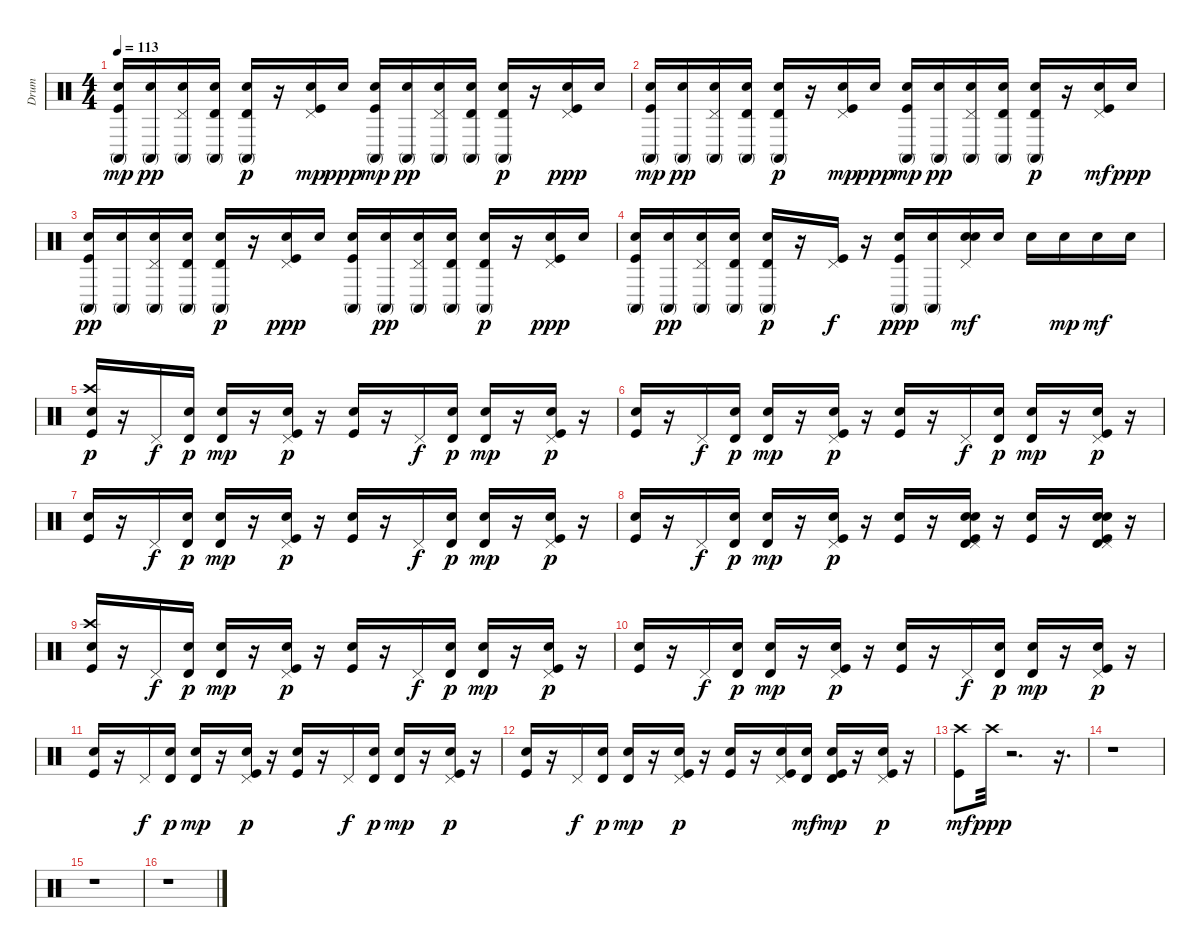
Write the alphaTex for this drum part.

\track ("Drum" "Drum") {instrument percussion}
\staff {score}
\articulation defaults
\ts (4 4)
\tempo 113
\clef neutral
\ks c
("Electric Snare (hit)" "Conga high (mute)" "Kick (hit)").16{dy mp} ("Electric Snare (hit)" "Conga high (mute)").16{dy pp} ("Electric Snare (hit)" "Conga high (mute)" "Pedal Hi-Hat (hit)").16 ("Electric Snare (hit)" "Conga high (mute)" "Timbale high (hit)").16 ("Electric Snare (hit)" "Conga high (mute)" "Timbale high (hit)").16{dy p} r.16 ("Electric Snare (hit)" "Kick (hit)" "Pedal Hi-Hat (hit)").16{dy mp} "Electric Snare (hit)".16{dy ppp} ("Electric Snare (hit)" "Conga high (mute)" "Kick (hit)").16{dy mp} ("Electric Snare (hit)" "Conga high (mute)").16{dy pp} ("Electric Snare (hit)" "Conga high (mute)" "Pedal Hi-Hat (hit)").16 ("Electric Snare (hit)" "Conga high (mute)" "Timbale high (hit)").16 ("Electric Snare (hit)" "Conga high (mute)" "Timbale high (hit)").16{dy p} r.16 ("Electric Snare (hit)" "Kick (hit)" "Pedal Hi-Hat (hit)").16{dy ppp} "Electric Snare (hit)".16 |
("Electric Snare (hit)" "Conga high (mute)" "Kick (hit)").16{dy mp} ("Electric Snare (hit)" "Conga high (mute)").16{dy pp} ("Electric Snare (hit)" "Conga high (mute)" "Pedal Hi-Hat (hit)").16 ("Electric Snare (hit)" "Conga high (mute)" "Timbale high (hit)").16 ("Electric Snare (hit)" "Conga high (mute)" "Timbale high (hit)").16{dy p} r.16 ("Electric Snare (hit)" "Kick (hit)" "Pedal Hi-Hat (hit)").16{dy mp} "Electric Snare (hit)".16{dy ppp} ("Electric Snare (hit)" "Conga high (mute)" "Kick (hit)").16{dy mp} ("Electric Snare (hit)" "Conga high (mute)").16{dy pp} ("Electric Snare (hit)" "Conga high (mute)" "Pedal Hi-Hat (hit)").16 ("Electric Snare (hit)" "Conga high (mute)" "Timbale high (hit)").16 ("Electric Snare (hit)" "Conga high (mute)" "Timbale high (hit)").16{dy p} r.16 ("Electric Snare (hit)" "Kick (hit)" "Pedal Hi-Hat (hit)").16{dy mf} "Electric Snare (hit)".16{dy ppp} |
("Electric Snare (hit)" "Conga high (mute)" "Kick (hit)").16{dy pp} ("Electric Snare (hit)" "Conga high (mute)").16 ("Electric Snare (hit)" "Conga high (mute)" "Pedal Hi-Hat (hit)").16 ("Electric Snare (hit)" "Conga high (mute)" "Timbale high (hit)").16 ("Electric Snare (hit)" "Conga high (mute)" "Timbale high (hit)").16{dy p} r.16 ("Electric Snare (hit)" "Kick (hit)" "Pedal Hi-Hat (hit)").16{dy ppp} "Electric Snare (hit)".16 ("Electric Snare (hit)" "Conga high (mute)" "Kick (hit)").16 ("Electric Snare (hit)" "Conga high (mute)").16{dy pp} ("Electric Snare (hit)" "Conga high (mute)" "Pedal Hi-Hat (hit)").16 ("Electric Snare (hit)" "Conga high (mute)" "Timbale high (hit)").16 ("Electric Snare (hit)" "Conga high (mute)" "Timbale high (hit)").16{dy p} r.16 ("Electric Snare (hit)" "Kick (hit)" "Pedal Hi-Hat (hit)").16{dy ppp} "Electric Snare (hit)".16 |
("Electric Snare (hit)" "Conga high (mute)" "Kick (hit)").16 ("Electric Snare (hit)" "Conga high (mute)").16{dy pp} ("Electric Snare (hit)" "Conga high (mute)" "Pedal Hi-Hat (hit)").16 ("Electric Snare (hit)" "Conga high (mute)" "Timbale high (hit)").16 ("Electric Snare (hit)" "Conga high (mute)" "Timbale high (hit)").16{dy p} r.16 ("Kick (hit)" "Pedal Hi-Hat (hit)").16{dy f} r.16 ("Electric Snare (hit)" "Conga high (mute)" "Kick (hit)").16{dy ppp} ("Electric Snare (hit)" "Conga high (mute)").16 ("Electric Snare (hit)" "Electric Snare (hit)" "Pedal Hi-Hat (hit)").16{dy mf} "Electric Snare (hit)".16 "Electric Snare (hit)".16 "Electric Snare (hit)".16{dy mp} "Electric Snare (hit)".16{dy mf} "Electric Snare (hit)".16 |
("Crash high (hit)" "Kick (hit)" "Snare (hit) 2").16{dy p} r.16 "Pedal Hi-Hat (hit)".16{dy f} ("Electric Snare (hit)" "Timbale high (hit)").16{dy p} ("Electric Snare (hit)" "Timbale high (hit)").16{dy mp} r.16 ("Kick (hit)" "Snare (hit) 2" "Pedal Hi-Hat (hit)").16{dy p} r.16 ("Kick (hit)" "Snare (hit) 2").16 r.16 "Pedal Hi-Hat (hit)".16{dy f} ("Electric Snare (hit)" "Timbale high (hit)").16{dy p} ("Electric Snare (hit)" "Timbale high (hit)").16{dy mp} r.16 ("Snare (hit) 2" "Kick (hit)" "Pedal Hi-Hat (hit)").16{dy p} r.16 |
("Kick (hit)" "Snare (hit) 2").16 r.16 "Pedal Hi-Hat (hit)".16{dy f} ("Electric Snare (hit)" "Timbale high (hit)").16{dy p} ("Electric Snare (hit)" "Timbale high (hit)").16{dy mp} r.16 ("Kick (hit)" "Snare (hit) 2" "Pedal Hi-Hat (hit)").16{dy p} r.16 ("Kick (hit)" "Snare (hit) 2").16 r.16 "Pedal Hi-Hat (hit)".16{dy f} ("Electric Snare (hit)" "Timbale high (hit)").16{dy p} ("Electric Snare (hit)" "Timbale high (hit)").16{dy mp} r.16 ("Snare (hit) 2" "Kick (hit)" "Pedal Hi-Hat (hit)").16{dy p} r.16 |
("Kick (hit)" "Snare (hit) 2").16 r.16 "Pedal Hi-Hat (hit)".16{dy f} ("Electric Snare (hit)" "Timbale high (hit)").16{dy p} ("Electric Snare (hit)" "Timbale high (hit)").16{dy mp} r.16 ("Kick (hit)" "Snare (hit) 2" "Pedal Hi-Hat (hit)").16{dy p} r.16 ("Kick (hit)" "Snare (hit) 2").16 r.16 "Pedal Hi-Hat (hit)".16{dy f} ("Electric Snare (hit)" "Timbale high (hit)").16{dy p} ("Electric Snare (hit)" "Timbale high (hit)").16{dy mp} r.16 ("Snare (hit) 2" "Kick (hit)" "Pedal Hi-Hat (hit)").16{dy p} r.16 |
("Kick (hit)" "Snare (hit) 2").16 r.16 "Pedal Hi-Hat (hit)".16{dy f} ("Electric Snare (hit)" "Timbale high (hit)").16{dy p} ("Electric Snare (hit)" "Timbale high (hit)").16{dy mp} r.16 ("Kick (hit)" "Snare (hit) 2" "Pedal Hi-Hat (hit)").16{dy p} r.16 ("Kick (hit)" "Snare (hit) 2").16 r.16 ("Kick (hit)" "Timbale high (hit)" "Snare (hit) 2" "Electric Snare (hit)" "Pedal Hi-Hat (hit)").16 r.16 ("Kick (hit)" "Snare (hit) 2").16 r.16 ("Kick (hit)" "Timbale high (hit)" "Snare (hit) 2" "Electric Snare (hit)" "Pedal Hi-Hat (hit)").16 r.16 |
("Crash high (hit)" "Kick (hit)" "Snare (hit) 2").16 r.16 "Pedal Hi-Hat (hit)".16{dy f} ("Electric Snare (hit)" "Timbale high (hit)").16{dy p} ("Electric Snare (hit)" "Timbale high (hit)").16{dy mp} r.16 ("Kick (hit)" "Snare (hit) 2" "Pedal Hi-Hat (hit)").16{dy p} r.16 ("Kick (hit)" "Snare (hit) 2").16 r.16 "Pedal Hi-Hat (hit)".16{dy f} ("Electric Snare (hit)" "Timbale high (hit)").16{dy p} ("Electric Snare (hit)" "Timbale high (hit)").16{dy mp} r.16 ("Snare (hit) 2" "Kick (hit)" "Pedal Hi-Hat (hit)").16{dy p} r.16 |
("Kick (hit)" "Snare (hit) 2").16 r.16 "Pedal Hi-Hat (hit)".16{dy f} ("Electric Snare (hit)" "Timbale high (hit)").16{dy p} ("Electric Snare (hit)" "Timbale high (hit)").16{dy mp} r.16 ("Kick (hit)" "Snare (hit) 2" "Pedal Hi-Hat (hit)").16{dy p} r.16 ("Kick (hit)" "Snare (hit) 2").16 r.16 "Pedal Hi-Hat (hit)".16{dy f} ("Electric Snare (hit)" "Timbale high (hit)").16{dy p} ("Electric Snare (hit)" "Timbale high (hit)").16{dy mp} r.16 ("Snare (hit) 2" "Kick (hit)" "Pedal Hi-Hat (hit)").16{dy p} r.16 |
("Kick (hit)" "Snare (hit) 2").16 r.16 "Pedal Hi-Hat (hit)".16{dy f} ("Electric Snare (hit)" "Timbale high (hit)").16{dy p} ("Electric Snare (hit)" "Timbale high (hit)").16{dy mp} r.16 ("Kick (hit)" "Snare (hit) 2" "Pedal Hi-Hat (hit)").16{dy p} r.16 ("Kick (hit)" "Snare (hit) 2").16 r.16 "Pedal Hi-Hat (hit)".16{dy f} ("Electric Snare (hit)" "Timbale high (hit)").16{dy p} ("Electric Snare (hit)" "Timbale high (hit)").16{dy mp} r.16 ("Snare (hit) 2" "Kick (hit)" "Pedal Hi-Hat (hit)").16{dy p} r.16 |
("Kick (hit)" "Snare (hit) 2").16 r.16 "Pedal Hi-Hat (hit)".16{dy f} ("Electric Snare (hit)" "Timbale high (hit)").16{dy p} ("Electric Snare (hit)" "Timbale high (hit)").16{dy mp} r.16 ("Kick (hit)" "Snare (hit) 2" "Pedal Hi-Hat (hit)").16{dy p} r.16 ("Kick (hit)" "Snare (hit) 2").16 r.16 ("Kick (hit)" "Snare (hit) 2" "Pedal Hi-Hat (hit)").16 ("Timbale high (hit)" "Electric Snare (hit)").16{dy mf} ("Kick (hit)" "Timbale high (hit)" "Electric Snare (hit)").16{dy mp} r.16 ("Kick (hit)" "Snare (hit) 2" "Pedal Hi-Hat (hit)").16{dy p} r.16 |
("Crash high (hit)" "Kick (hit)").8{dy mf} "Crash high (hit)".32{dy ppp} r.2{d} r.16{d} |
r.1 |
r.1 |
r.1
